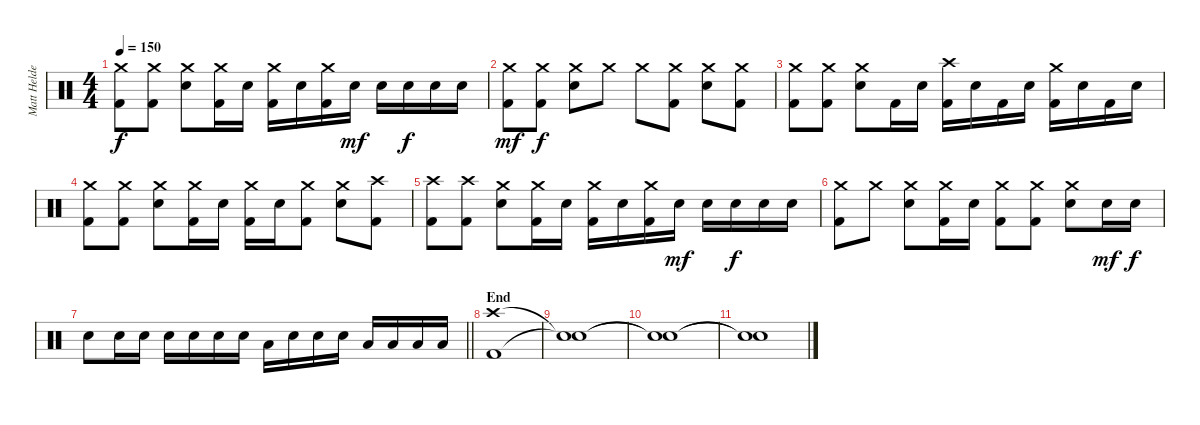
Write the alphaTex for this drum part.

\track ("Matt Helders - Drums MIDI" "Matt Helde") {instrument percussion}
\staff {score}
\articulation defaults
\ts (4 4)
\tempo 150
\clef neutral
\ks c
("Crash medium (hit)" "Kick (hit) 2").8{dy f} ("Crash medium (hit)" "Kick (hit) 2").8 ("Crash medium (hit)" "Snare (hit) 2").8 ("Crash medium (hit)" "Kick (hit) 2").16 "Snare (hit) 2".16 ("Crash medium (hit)" "Kick (hit) 2").16 "Snare (hit) 2".16 ("Crash medium (hit)" "Kick (hit) 2").16 "Snare (hit) 2".16{dy mf} "Snare (hit) 2".16 "Snare (hit) 2".16{dy f} "Snare (hit) 2".16 "Snare (hit) 2".16 |
("Crash medium (hit)" "Kick (hit) 2").8{dy mf} ("Crash medium (hit)" "Kick (hit) 2").8{dy f} ("Crash medium (hit)" "Snare (hit) 2").8 "Crash medium (hit)".8 "Crash medium (hit)".8 ("Crash medium (hit)" "Kick (hit) 2").8 ("Crash medium (hit)" "Snare (hit) 2").8 ("Crash medium (hit)" "Kick (hit) 2").8 |
("Crash medium (hit)" "Kick (hit) 2").8 ("Crash medium (hit)" "Kick (hit) 2").8 ("Crash medium (hit)" "Snare (hit) 2").8 "Kick (hit) 2".16 "Snare (hit) 2".16 ("Crash high (hit)" "Kick (hit) 2").16 "Snare (hit) 2".16 "Kick (hit) 2".16 "Snare (hit) 2".16 ("Crash medium (hit)" "Kick (hit) 2").16 "Snare (hit) 2".16 "Kick (hit) 2".16 "Snare (hit) 2".16 |
("Crash medium (hit)" "Kick (hit) 2").8 ("Crash medium (hit)" "Kick (hit) 2").8 ("Crash medium (hit)" "Snare (hit) 2").8 ("Crash medium (hit)" "Kick (hit) 2").16 "Snare (hit) 2".16 ("Crash medium (hit)" "Kick (hit) 2").16 "Snare (hit) 2".16 ("Crash medium (hit)" "Kick (hit) 2").8 ("Crash medium (hit)" "Snare (hit) 2").8 ("Crash high (hit)" "Kick (hit) 2").8 |
("Crash high (hit)" "Kick (hit) 2").8 ("Crash high (hit)" "Kick (hit) 2").8 ("Crash medium (hit)" "Snare (hit) 2").8 ("Crash medium (hit)" "Kick (hit) 2").16 "Snare (hit) 2".16 ("Crash medium (hit)" "Kick (hit) 2").16 "Snare (hit) 2".16 ("Crash medium (hit)" "Kick (hit) 2").16 "Snare (hit) 2".16{dy mf} "Snare (hit) 2".16 "Snare (hit) 2".16{dy f} "Snare (hit) 2".16 "Snare (hit) 2".16 |
("Crash medium (hit)" "Kick (hit) 2").8 "Crash medium (hit)".8 ("Crash medium (hit)" "Snare (hit) 2").8 ("Crash medium (hit)" "Kick (hit) 2").16 "Snare (hit) 2".16 ("Crash medium (hit)" "Kick (hit) 2").8 ("Crash medium (hit)" "Kick (hit) 2").8 ("Crash medium (hit)" "Snare (hit) 2").8 "Snare (hit) 2".16{dy mf} "Snare (hit) 2".16{dy f} |
\barLineRight lightlight "Snare (hit) 2".8 "Snare (hit) 2".16 "Snare (hit) 2".16 "Snare (hit) 2".16 "Snare (hit) 2".16 "Snare (hit) 2".16 "Snare (hit) 2".16 "Low Tom (hit)".16 "Snare (hit) 2".16 "Snare (hit) 2".16 "Snare (hit) 2".16 "Low Tom (hit)".16 "Low Tom (hit)".16 "Low Floor Tom (hit)".16 "Low Floor Tom (hit)".16
|
\section ("" "End")
("Crash high (hit)" "Kick (hit) 2").1 |
("Snare (hit)"{t} "Snare (hit)"{t}).1 |
("Snare (hit)"{t} "Snare (hit)"{t}).1 |
("Snare (hit)"{t} "Snare (hit)"{t}).1
